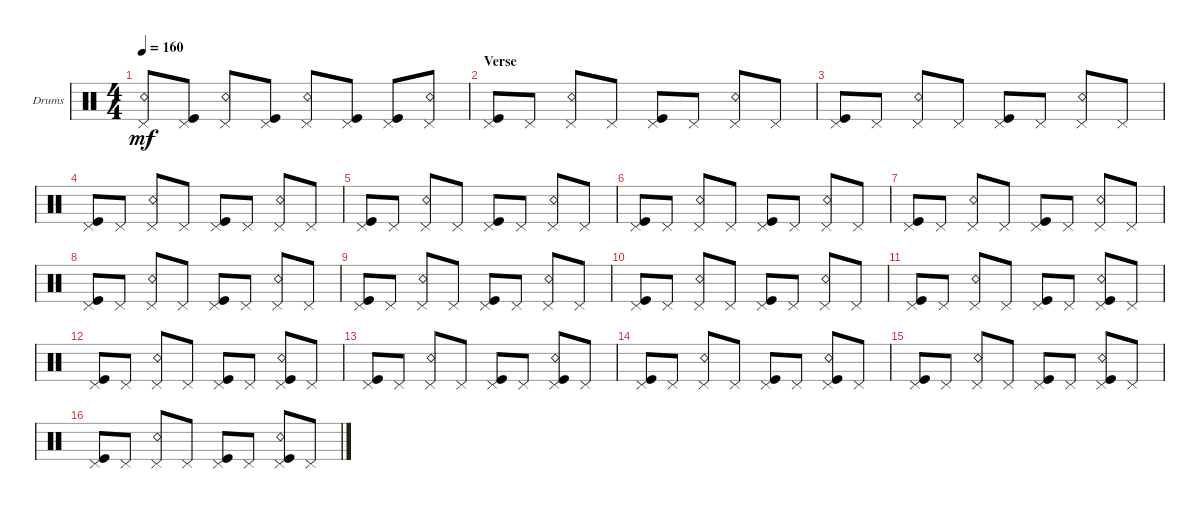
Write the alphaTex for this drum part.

\bracketExtendMode groupsimilarinstruments
\firstSystemTrackNameOrientation horizontal
\otherSystemsTrackNameOrientation horizontal
\track ("Drumkit" "Drums") {instrument percussion}
\staff {score}
\articulation defaults
\ts (4 4)
\tempo 160
\clef neutral
\ks c
("Pedal Hi-Hat (hit)" "Snare (rim shot)").8{dy mf} ("Pedal Hi-Hat (hit)" "Kick (hit)").8 ("Pedal Hi-Hat (hit)" "Snare (rim shot)").8 ("Pedal Hi-Hat (hit)" "Kick (hit)").8 ("Pedal Hi-Hat (hit)" "Snare (rim shot)").8 ("Pedal Hi-Hat (hit)" "Kick (hit)").8 ("Pedal Hi-Hat (hit)" "Kick (hit)").8 ("Pedal Hi-Hat (hit)" "Snare (rim shot)").8 |
\section ("" "Verse")
("Pedal Hi-Hat (hit)" "Kick (hit)").8 "Pedal Hi-Hat (hit)".8 ("Pedal Hi-Hat (hit)" "Snare (rim shot)").8 "Pedal Hi-Hat (hit)".8 ("Pedal Hi-Hat (hit)" "Kick (hit)").8 "Pedal Hi-Hat (hit)".8 ("Pedal Hi-Hat (hit)" "Snare (rim shot)").8 "Pedal Hi-Hat (hit)".8 |
("Pedal Hi-Hat (hit)" "Kick (hit)").8 "Pedal Hi-Hat (hit)".8 ("Pedal Hi-Hat (hit)" "Snare (rim shot)").8 "Pedal Hi-Hat (hit)".8 ("Pedal Hi-Hat (hit)" "Kick (hit)").8 "Pedal Hi-Hat (hit)".8 ("Pedal Hi-Hat (hit)" "Snare (rim shot)").8 "Pedal Hi-Hat (hit)".8 |
("Pedal Hi-Hat (hit)" "Kick (hit)").8 "Pedal Hi-Hat (hit)".8 ("Pedal Hi-Hat (hit)" "Snare (rim shot)").8 "Pedal Hi-Hat (hit)".8 ("Pedal Hi-Hat (hit)" "Kick (hit)").8 "Pedal Hi-Hat (hit)".8 ("Pedal Hi-Hat (hit)" "Snare (rim shot)").8 "Pedal Hi-Hat (hit)".8 |
("Pedal Hi-Hat (hit)" "Kick (hit)").8 "Pedal Hi-Hat (hit)".8 ("Pedal Hi-Hat (hit)" "Snare (rim shot)").8 "Pedal Hi-Hat (hit)".8 ("Pedal Hi-Hat (hit)" "Kick (hit)").8 "Pedal Hi-Hat (hit)".8 ("Pedal Hi-Hat (hit)" "Snare (rim shot)").8 "Pedal Hi-Hat (hit)".8 |
("Pedal Hi-Hat (hit)" "Kick (hit)").8 "Pedal Hi-Hat (hit)".8 ("Pedal Hi-Hat (hit)" "Snare (rim shot)").8 "Pedal Hi-Hat (hit)".8 ("Pedal Hi-Hat (hit)" "Kick (hit)").8 "Pedal Hi-Hat (hit)".8 ("Pedal Hi-Hat (hit)" "Snare (rim shot)").8 "Pedal Hi-Hat (hit)".8 |
("Pedal Hi-Hat (hit)" "Kick (hit)").8 "Pedal Hi-Hat (hit)".8 ("Pedal Hi-Hat (hit)" "Snare (rim shot)").8 "Pedal Hi-Hat (hit)".8 ("Pedal Hi-Hat (hit)" "Kick (hit)").8 "Pedal Hi-Hat (hit)".8 ("Pedal Hi-Hat (hit)" "Snare (rim shot)").8 "Pedal Hi-Hat (hit)".8 |
("Pedal Hi-Hat (hit)" "Kick (hit)").8 "Pedal Hi-Hat (hit)".8 ("Pedal Hi-Hat (hit)" "Snare (rim shot)").8 "Pedal Hi-Hat (hit)".8 ("Pedal Hi-Hat (hit)" "Kick (hit)").8 "Pedal Hi-Hat (hit)".8 ("Pedal Hi-Hat (hit)" "Snare (rim shot)").8 "Pedal Hi-Hat (hit)".8 |
("Pedal Hi-Hat (hit)" "Kick (hit)").8 "Pedal Hi-Hat (hit)".8 ("Pedal Hi-Hat (hit)" "Snare (rim shot)").8 "Pedal Hi-Hat (hit)".8 ("Pedal Hi-Hat (hit)" "Kick (hit)").8 "Pedal Hi-Hat (hit)".8 ("Pedal Hi-Hat (hit)" "Snare (rim shot)").8 "Pedal Hi-Hat (hit)".8 |
("Pedal Hi-Hat (hit)" "Kick (hit)").8 "Pedal Hi-Hat (hit)".8 ("Pedal Hi-Hat (hit)" "Snare (rim shot)").8 "Pedal Hi-Hat (hit)".8 ("Pedal Hi-Hat (hit)" "Kick (hit)").8 "Pedal Hi-Hat (hit)".8 ("Pedal Hi-Hat (hit)" "Snare (rim shot)").8 "Pedal Hi-Hat (hit)".8 |
("Pedal Hi-Hat (hit)" "Kick (hit)").8 "Pedal Hi-Hat (hit)".8 ("Pedal Hi-Hat (hit)" "Snare (rim shot)").8 "Pedal Hi-Hat (hit)".8 ("Pedal Hi-Hat (hit)" "Kick (hit)").8 "Pedal Hi-Hat (hit)".8 ("Pedal Hi-Hat (hit)" "Kick (hit)" "Snare (rim shot)").8 "Pedal Hi-Hat (hit)".8 |
("Pedal Hi-Hat (hit)" "Kick (hit)").8 "Pedal Hi-Hat (hit)".8 ("Pedal Hi-Hat (hit)" "Snare (rim shot)").8 "Pedal Hi-Hat (hit)".8 ("Pedal Hi-Hat (hit)" "Kick (hit)").8 "Pedal Hi-Hat (hit)".8 ("Pedal Hi-Hat (hit)" "Kick (hit)" "Snare (rim shot)").8 "Pedal Hi-Hat (hit)".8 |
("Pedal Hi-Hat (hit)" "Kick (hit)").8 "Pedal Hi-Hat (hit)".8 ("Pedal Hi-Hat (hit)" "Snare (rim shot)").8 "Pedal Hi-Hat (hit)".8 ("Pedal Hi-Hat (hit)" "Kick (hit)").8 "Pedal Hi-Hat (hit)".8 ("Pedal Hi-Hat (hit)" "Kick (hit)" "Snare (rim shot)").8 "Pedal Hi-Hat (hit)".8 |
("Pedal Hi-Hat (hit)" "Kick (hit)").8 "Pedal Hi-Hat (hit)".8 ("Pedal Hi-Hat (hit)" "Snare (rim shot)").8 "Pedal Hi-Hat (hit)".8 ("Pedal Hi-Hat (hit)" "Kick (hit)").8 "Pedal Hi-Hat (hit)".8 ("Pedal Hi-Hat (hit)" "Kick (hit)" "Snare (rim shot)").8 "Pedal Hi-Hat (hit)".8 |
("Pedal Hi-Hat (hit)" "Kick (hit)").8 "Pedal Hi-Hat (hit)".8 ("Pedal Hi-Hat (hit)" "Snare (rim shot)").8 "Pedal Hi-Hat (hit)".8 ("Pedal Hi-Hat (hit)" "Kick (hit)").8 "Pedal Hi-Hat (hit)".8 ("Pedal Hi-Hat (hit)" "Kick (hit)" "Snare (rim shot)").8 "Pedal Hi-Hat (hit)".8 |
("Pedal Hi-Hat (hit)" "Kick (hit)").8 "Pedal Hi-Hat (hit)".8 ("Pedal Hi-Hat (hit)" "Snare (rim shot)").8 "Pedal Hi-Hat (hit)".8 ("Pedal Hi-Hat (hit)" "Kick (hit)").8 "Pedal Hi-Hat (hit)".8 ("Pedal Hi-Hat (hit)" "Kick (hit)" "Snare (rim shot)").8 "Pedal Hi-Hat (hit)".8
